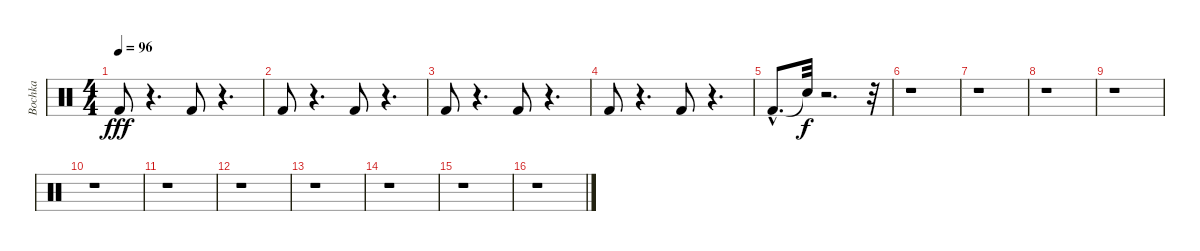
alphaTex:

\track ("Bochka" "Bochka") {instrument percussion}
\staff {score}
\articulation defaults
\ts (4 4)
\tempo 96
\clef neutral
\ks c "Kick (hit) 2".8{dy fff}
r.4{d} "Kick (hit) 2".8 r.4{d} |
"Kick (hit) 2".8 r.4{d} "Kick (hit) 2".8 r.4{d} |
"Kick (hit) 2".8 r.4{d} "Kick (hit) 2".8 r.4{d} |
"Kick (hit) 2".8 r.4{d} "Kick (hit) 2".8 r.4{d} |
"Kick (hit) 2"{hac}.8{d} "Snare (hit)"{t}.32{dy f} r.2{d} r.32 |
r.1 |
r.1 |
r.1 |
r.1 |
r.1 |
r.1 |
r.1 |
r.1 |
r.1 |
r.1 |
r.1
